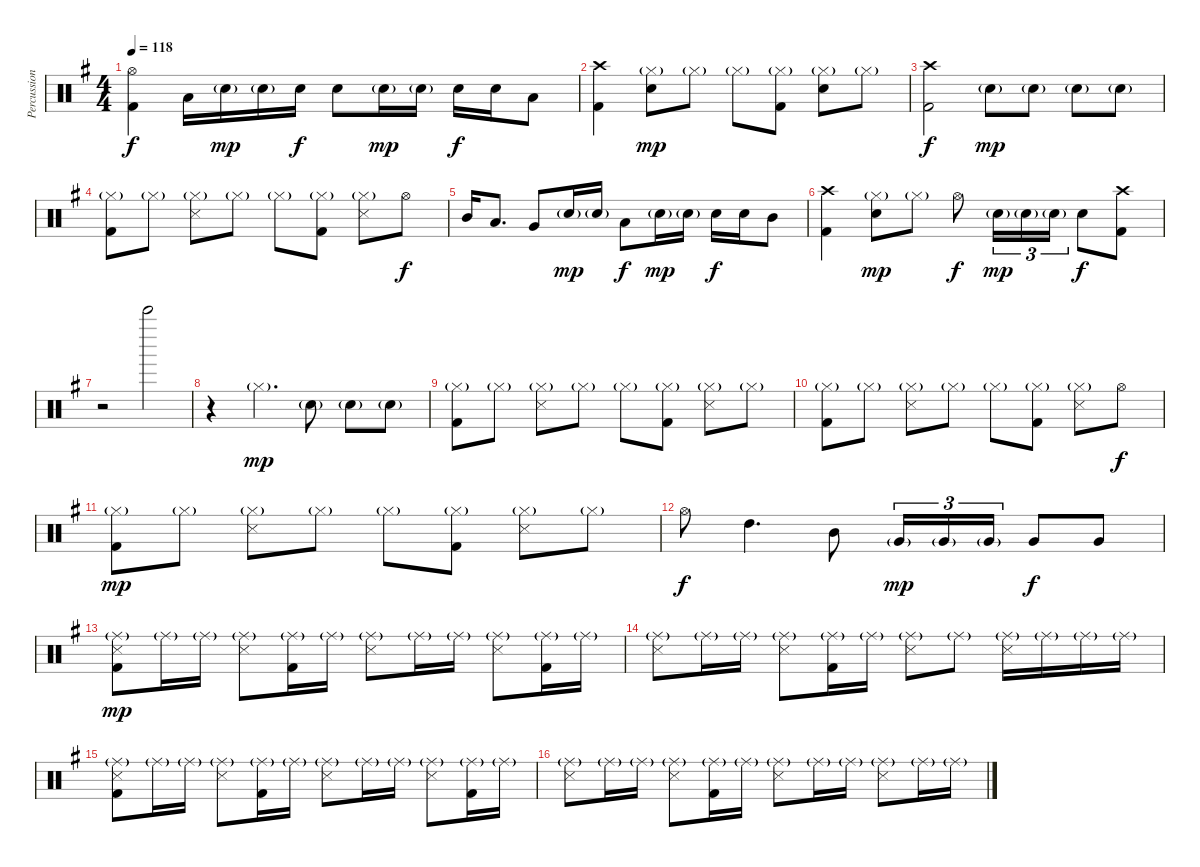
\track ("Percussion" "Percussion") {instrument percussion}
\staff {score}
\articulation defaults
\ts (4 4)
\tempo 118
\clef neutral
\ks eminor
("Hi-Hat (open)" "Kick (hit) 2").4{dy f} "Low Tom (hit)".16 "Electric Snare (hit)"{g}.16{dy mp} "Electric Snare (hit)"{g}.16 "Electric Snare (hit)".16{dy f} "Electric Snare (hit)".8 "Electric Snare (hit)"{g}.16{dy mp} "Electric Snare (hit)"{g}.16 "Electric Snare (hit)".16{dy f} "Electric Snare (hit)".16 "Low Tom (hit)".8 |
("Crash high (hit)" "Kick (hit) 2").4 ("Hi-Hat (closed)"{g} "Electric Snare (hit)").8{dy mp} "Hi-Hat (closed)"{g}.8 "Hi-Hat (closed)"{g}.8 ("Hi-Hat (closed)"{g} "Kick (hit) 2").8 ("Hi-Hat (closed)"{g} "Electric Snare (hit)").8 "Hi-Hat (closed)"{g}.8 |
("Crash high (hit)" "Kick (hit) 2").2{dy f} "Electric Snare (hit)"{g}.8{dy mp} "Electric Snare (hit)"{g}.8 "Electric Snare (hit)"{g}.8 "Electric Snare (hit)"{g}.8 |
("Hi-Hat (closed)"{g} "Kick (hit) 2").8 "Hi-Hat (closed)"{g}.8 ("Hi-Hat (closed)"{g} "Snare (side stick) 3").8 "Hi-Hat (closed)"{g}.8 "Hi-Hat (closed)"{g}.8 ("Hi-Hat (closed)"{g} "Kick (hit) 2").8 ("Hi-Hat (closed)"{g} "Snare (side stick) 3").8 "Hi-Hat (open)".8{dy f} |
"Mid Tom (hit)".16 "Low Tom (hit)".8{d} "Very Low Tom (hit)".8 "Electric Snare (hit)"{g}.16{dy mp} "Electric Snare (hit)"{g}.16 "Low Floor Tom (hit)".8{dy f} "Electric Snare (hit)"{g}.16{dy mp} "Electric Snare (hit)"{g}.16 "Electric Snare (hit)".16{dy f} "Electric Snare (hit)".16 "Mid Tom (hit)".8 |
("Crash high (hit)" "Kick (hit) 2").4 ("Hi-Hat (closed)"{g} "Electric Snare (hit)").8{dy mp} "Hi-Hat (closed)"{g}.8 "Hi-Hat (open)".8{dy f} "Electric Snare (hit)"{g}.16{tu (3 2) dy mp} "Electric Snare (hit)"{g}.16{tu (3 2)} "Electric Snare (hit)"{g}.16{tu (3 2)} "Electric Snare (hit)".8{dy f} ("Crash high (hit)" "Kick (hit) 2").8 |
r.2 "Bell Tree (hit)".2 |
r.4 "Hi-Hat (closed)"{g}.4{d dy mp} "Electric Snare (hit)"{g}.8 "Electric Snare (hit)"{g}.8 "Electric Snare (hit)"{g}.8 |
("Hi-Hat (closed)"{g} "Kick (hit) 2").8 "Hi-Hat (closed)"{g}.8 ("Hi-Hat (closed)"{g} "Snare (side stick) 3").8 "Hi-Hat (closed)"{g}.8 "Hi-Hat (closed)"{g}.8 ("Hi-Hat (closed)"{g} "Kick (hit) 2").8 ("Hi-Hat (closed)"{g} "Snare (side stick) 3").8 "Hi-Hat (closed)"{g}.8 |
("Hi-Hat (closed)"{g} "Kick (hit) 2").8 "Hi-Hat (closed)"{g}.8 ("Hi-Hat (closed)"{g} "Snare (side stick) 3").8 "Hi-Hat (closed)"{g}.8 "Hi-Hat (closed)"{g}.8 ("Hi-Hat (closed)"{g} "Kick (hit) 2").8 ("Hi-Hat (closed)"{g} "Snare (side stick) 3").8 "Hi-Hat (open)".8{dy f} |
("Hi-Hat (closed)"{g} "Kick (hit) 2").8{dy mp} "Hi-Hat (closed)"{g}.8 ("Hi-Hat (closed)"{g} "Snare (side stick) 3").8 "Hi-Hat (closed)"{g}.8 "Hi-Hat (closed)"{g}.8 ("Hi-Hat (closed)"{g} "Kick (hit) 2").8 ("Hi-Hat (closed)"{g} "Snare (side stick) 3").8 "Hi-Hat (closed)"{g}.8 |
"Hi-Hat (open)".8{dy f} "High Tom (hit)".4{d} "Mid Tom (hit)".8 "Very Low Tom (hit)"{g}.16{tu (3 2) dy mp} "Very Low Tom (hit)"{g}.16{tu (3 2)} "Very Low Tom (hit)"{g}.16{tu (3 2)} "Very Low Tom (hit)".8{dy f} "Very Low Tom (hit)".8 |
("Ride (middle)"{g} "Snare (side stick) 3" "Kick (hit) 2").8{dy mp} "Ride (middle)"{g}.16 "Ride (middle)"{g}.16 ("Ride (middle)"{g} "Snare (side stick) 3").8 ("Ride (middle)"{g} "Kick (hit) 2").16 "Ride (middle)"{g}.16 ("Ride (middle)"{g} "Snare (side stick) 3").8 "Ride (middle)"{g}.16 "Ride (middle)"{g}.16 ("Ride (middle)"{g} "Snare (side stick) 3").8 ("Ride (middle)"{g} "Kick (hit) 2").16 "Ride (middle)"{g}.16 |
("Ride (middle)"{g} "Snare (side stick) 3").8 "Ride (middle)"{g}.16 "Ride (middle)"{g}.16 ("Ride (middle)"{g} "Snare (side stick) 3").8 ("Ride (middle)"{g} "Kick (hit) 2").16 "Ride (middle)"{g}.16 ("Ride (middle)"{g} "Snare (side stick) 3").8 "Ride (middle)"{g}.8 ("Ride (middle)"{g} "Snare (side stick) 3").16 "Ride (middle)"{g}.16 "Ride (middle)"{g}.16 "Ride (middle)"{g}.16 |
("Ride (middle)"{g} "Snare (side stick) 3" "Kick (hit) 2").8 "Ride (middle)"{g}.16 "Ride (middle)"{g}.16 ("Ride (middle)"{g} "Snare (side stick) 3").8 ("Ride (middle)"{g} "Kick (hit) 2").16 "Ride (middle)"{g}.16 ("Ride (middle)"{g} "Snare (side stick) 3").8 "Ride (middle)"{g}.16 "Ride (middle)"{g}.16 ("Ride (middle)"{g} "Snare (side stick) 3").8 ("Ride (middle)"{g} "Kick (hit) 2").16 "Ride (middle)"{g}.16 |
("Ride (middle)"{g} "Snare (side stick) 3").8 "Ride (middle)"{g}.16 "Ride (middle)"{g}.16 ("Ride (middle)"{g} "Snare (side stick) 3").8 ("Ride (middle)"{g} "Kick (hit) 2").16 "Ride (middle)"{g}.16 ("Ride (middle)"{g} "Snare (side stick) 3").8 "Ride (middle)"{g}.16 "Ride (middle)"{g}.16 ("Ride (middle)"{g} "Snare (side stick) 3").8 "Ride (middle)"{g}.16 "Ride (middle)"{g}.16
